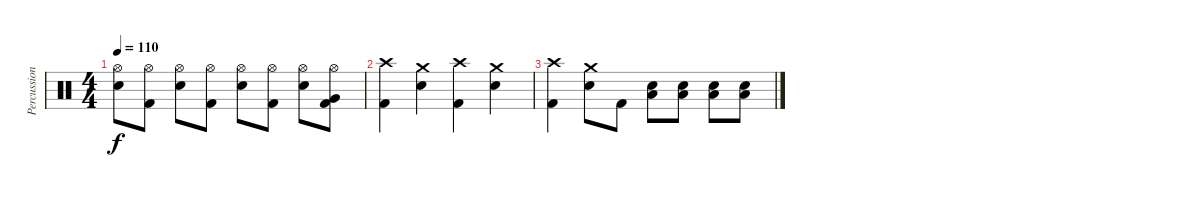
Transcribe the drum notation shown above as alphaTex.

\track ("Percussion" "Percussion") {instrument percussion}
\staff {score}
\articulation defaults
\ts (4 4)
\tempo 110
\clef neutral
\ks c
("Hi-Hat (open)" "Snare (hit) 2").8{dy f} ("Hi-Hat (open)" "Kick (hit) 2").8 ("Hi-Hat (open)" "Snare (hit) 2").8 ("Hi-Hat (open)" "Kick (hit) 2").8 ("Hi-Hat (open)" "Snare (hit) 2").8 ("Hi-Hat (open)" "Kick (hit) 2").8 ("Hi-Hat (open)" "Snare (hit) 2").8 ("Hi-Hat (open)" "Very Low Tom (hit)" "Kick (hit) 2").8 |
("Crash high (hit)" "Kick (hit) 2").4 ("Crash medium (hit)" "Snare (hit) 2").4 ("Crash high (hit)" "Kick (hit) 2").4 ("Crash medium (hit)" "Snare (hit) 2").4 |
("Crash high (hit)" "Kick (hit) 2").4 ("Crash medium (hit)" "Snare (hit) 2").8 "Kick (hit) 2".8 ("Snare (hit) 2" "Low Floor Tom (hit)").8 ("Snare (hit) 2" "Low Floor Tom (hit)").8 ("Snare (hit) 2" "Low Floor Tom (hit)").8 ("Snare (hit) 2" "Low Floor Tom (hit)").8
